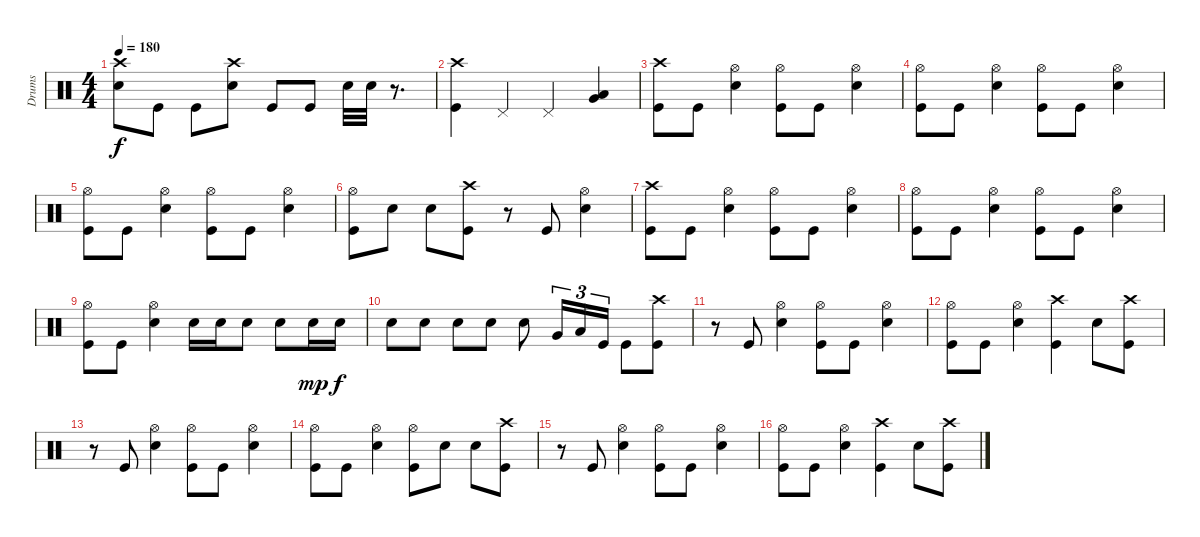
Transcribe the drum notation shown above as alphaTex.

\track ("Drums" "Drums") {instrument percussion}
\staff {score}
\articulation defaults
\ts (4 4)
\tempo 180
\clef neutral
\ks c
("Crash high (hit)" "Snare (hit) 2").8{dy f} "Kick (hit)".8 "Kick (hit)".8 ("Crash high (hit)" "Snare (hit) 2").8 "Kick (hit)".8 "Kick (hit)".8 "Snare (hit) 2".32 "Snare (hit) 2".32 r.8{d} |
("Crash high (hit)" "Kick (hit)").4 "Pedal Hi-Hat (hit)".4 "Pedal Hi-Hat (hit)".4 ("Low Tom (hit)" "Very Low Tom (hit)").4 |
("Crash high (hit)" "Kick (hit)").8 "Kick (hit)".8 ("Hi-Hat (open)" "Snare (hit) 2").4 ("Hi-Hat (open)" "Kick (hit)").8 "Kick (hit)".8 ("Hi-Hat (open)" "Snare (hit) 2").4 |
("Hi-Hat (open)" "Kick (hit)").8 "Kick (hit)".8 ("Hi-Hat (open)" "Snare (hit) 2").4 ("Hi-Hat (open)" "Kick (hit)").8 "Kick (hit)".8 ("Hi-Hat (open)" "Snare (hit) 2").4 |
("Hi-Hat (open)" "Kick (hit)").8 "Kick (hit)".8 ("Hi-Hat (open)" "Snare (hit) 2").4 ("Hi-Hat (open)" "Kick (hit)").8 "Kick (hit)".8 ("Hi-Hat (open)" "Snare (hit) 2").4 |
("Hi-Hat (open)" "Kick (hit)").8 "Snare (hit) 2".8 "Snare (hit) 2".8 ("Crash high (hit)" "Kick (hit)").8 r.8 "Kick (hit)".8 ("Hi-Hat (open)" "Snare (hit) 2").4 |
("Crash high (hit)" "Kick (hit)").8 "Kick (hit)".8 ("Hi-Hat (open)" "Snare (hit) 2").4 ("Hi-Hat (open)" "Kick (hit)").8 "Kick (hit)".8 ("Hi-Hat (open)" "Snare (hit) 2").4 |
("Hi-Hat (open)" "Kick (hit)").8 "Kick (hit)".8 ("Hi-Hat (open)" "Snare (hit) 2").4 ("Hi-Hat (open)" "Kick (hit)").8 "Kick (hit)".8 ("Hi-Hat (open)" "Snare (hit) 2").4 |
("Hi-Hat (open)" "Kick (hit)").8 "Kick (hit)".8 ("Hi-Hat (open)" "Snare (hit) 2").4 "Snare (hit) 2".16 "Snare (hit) 2".16 "Snare (hit) 2".8 "Snare (hit) 2".8 "Snare (hit) 2".16{dy mp} "Snare (hit) 2".16{dy f} |
"Snare (hit) 2".8 "Snare (hit) 2".8 "Snare (hit) 2".8 "Snare (hit) 2".8 "Snare (hit) 2".8 "Very Low Tom (hit)".16{tu (3 2)} "Low Floor Tom (hit)".16{tu (3 2)} "Kick (hit)".16{tu (3 2)} "Kick (hit)".8 ("Crash high (hit)" "Kick (hit)").8 |
r.8 "Kick (hit)".8 ("Hi-Hat (open)" "Snare (hit) 2").4 ("Hi-Hat (open)" "Kick (hit)").8 "Kick (hit)".8 ("Hi-Hat (open)" "Snare (hit) 2").4 |
("Hi-Hat (open)" "Kick (hit)").8 "Kick (hit)".8 ("Hi-Hat (open)" "Snare (hit) 2").4 ("Crash high (hit)" "Kick (hit)").4 "Snare (hit) 2".8 ("Crash high (hit)" "Kick (hit)").8 |
r.8 "Kick (hit)".8 ("Hi-Hat (open)" "Snare (hit) 2").4 ("Hi-Hat (open)" "Kick (hit)").8 "Kick (hit)".8 ("Hi-Hat (open)" "Snare (hit) 2").4 |
("Hi-Hat (open)" "Kick (hit)").8 "Kick (hit)".8 ("Hi-Hat (open)" "Snare (hit) 2").4 ("Hi-Hat (open)" "Kick (hit)").8 "Snare (hit) 2".8 "Snare (hit) 2".8 ("Crash high (hit)" "Kick (hit)").8 |
r.8 "Kick (hit)".8 ("Hi-Hat (open)" "Snare (hit) 2").4 ("Hi-Hat (open)" "Kick (hit)").8 "Kick (hit)".8 ("Hi-Hat (open)" "Snare (hit) 2").4 |
("Hi-Hat (open)" "Kick (hit)").8 "Kick (hit)".8 ("Hi-Hat (open)" "Snare (hit) 2").4 ("Crash high (hit)" "Kick (hit)").4 "Snare (hit) 2".8 ("Crash high (hit)" "Kick (hit)").8
